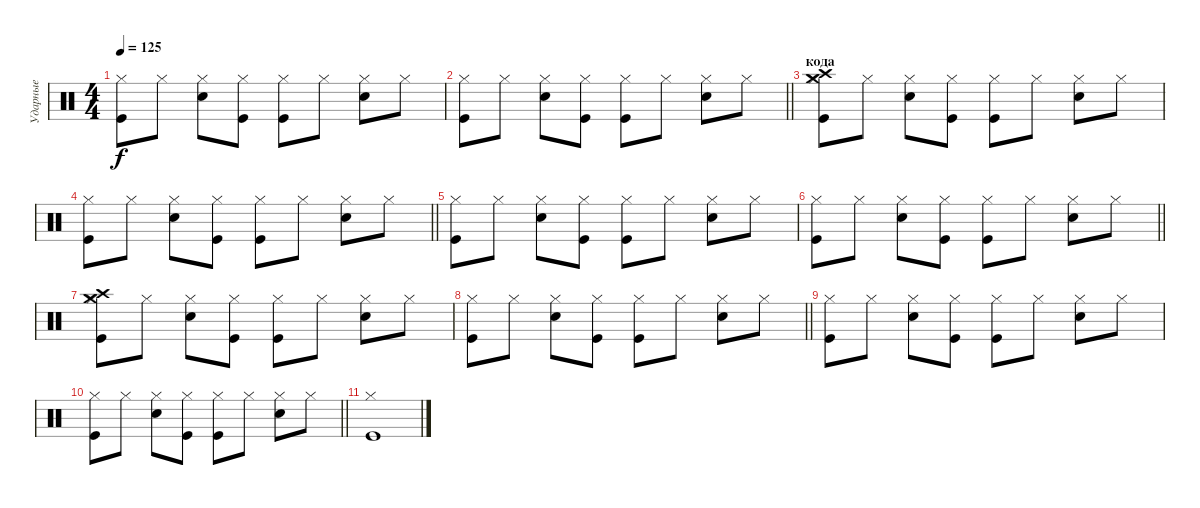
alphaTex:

\track ("Ударные" "Ударные") {instrument percussion}
\staff {score}
\articulation defaults
\ts (4 4)
\tempo 125
\clef neutral
\ks c
("Kick (hit)" "Hi-Hat (closed)").8{dy f} "Hi-Hat (closed)".8 ("Snare (hit) 2" "Hi-Hat (closed)").8 ("Kick (hit)" "Hi-Hat (closed)").8 ("Kick (hit)" "Hi-Hat (closed)").8 "Hi-Hat (closed)".8 ("Snare (hit) 2" "Hi-Hat (closed)").8 "Hi-Hat (closed)".8 |
\barLineRight lightlight
("Kick (hit)" "Hi-Hat (closed)").8 "Hi-Hat (closed)".8 ("Snare (hit) 2" "Hi-Hat (closed)").8 ("Kick (hit)" "Hi-Hat (closed)").8 ("Kick (hit)" "Hi-Hat (closed)").8 "Hi-Hat (closed)".8 ("Snare (hit) 2" "Hi-Hat (closed)").8 "Hi-Hat (closed)".8 |
\section ("" "кода")
("Kick (hit)" "Crash high (hit)" "Crash medium (hit)" "Hi-Hat (closed)").8 "Hi-Hat (closed)".8 ("Snare (hit) 2" "Hi-Hat (closed)").8 ("Kick (hit)" "Hi-Hat (closed)").8 ("Kick (hit)" "Hi-Hat (closed)").8 "Hi-Hat (closed)".8 ("Snare (hit) 2" "Hi-Hat (closed)").8 "Hi-Hat (closed)".8 |
\barLineRight lightlight
("Kick (hit)" "Hi-Hat (closed)").8 "Hi-Hat (closed)".8 ("Snare (hit) 2" "Hi-Hat (closed)").8 ("Kick (hit)" "Hi-Hat (closed)").8 ("Kick (hit)" "Hi-Hat (closed)").8 "Hi-Hat (closed)".8 ("Snare (hit) 2" "Hi-Hat (closed)").8 "Hi-Hat (closed)".8 |
("Kick (hit)" "Hi-Hat (closed)").8 "Hi-Hat (closed)".8 ("Snare (hit) 2" "Hi-Hat (closed)").8 ("Kick (hit)" "Hi-Hat (closed)").8 ("Kick (hit)" "Hi-Hat (closed)").8 "Hi-Hat (closed)".8 ("Snare (hit) 2" "Hi-Hat (closed)").8 "Hi-Hat (closed)".8 |
\barLineRight lightlight
("Kick (hit)" "Hi-Hat (closed)").8 "Hi-Hat (closed)".8 ("Snare (hit) 2" "Hi-Hat (closed)").8 ("Kick (hit)" "Hi-Hat (closed)").8 ("Kick (hit)" "Hi-Hat (closed)").8 "Hi-Hat (closed)".8 ("Snare (hit) 2" "Hi-Hat (closed)").8 "Hi-Hat (closed)".8 |
("Kick (hit)" "Crash high (hit)" "Crash medium (hit)" "Hi-Hat (closed)").8 "Hi-Hat (closed)".8 ("Snare (hit) 2" "Hi-Hat (closed)").8 ("Kick (hit)" "Hi-Hat (closed)").8 ("Kick (hit)" "Hi-Hat (closed)").8 "Hi-Hat (closed)".8 ("Snare (hit) 2" "Hi-Hat (closed)").8 "Hi-Hat (closed)".8 |
\barLineRight lightlight
("Kick (hit)" "Hi-Hat (closed)").8 "Hi-Hat (closed)".8 ("Snare (hit) 2" "Hi-Hat (closed)").8 ("Kick (hit)" "Hi-Hat (closed)").8 ("Kick (hit)" "Hi-Hat (closed)").8 "Hi-Hat (closed)".8 ("Snare (hit) 2" "Hi-Hat (closed)").8 "Hi-Hat (closed)".8 |
("Kick (hit)" "Hi-Hat (closed)").8 "Hi-Hat (closed)".8 ("Snare (hit) 2" "Hi-Hat (closed)").8 ("Kick (hit)" "Hi-Hat (closed)").8 ("Kick (hit)" "Hi-Hat (closed)").8 "Hi-Hat (closed)".8 ("Snare (hit) 2" "Hi-Hat (closed)").8 "Hi-Hat (closed)".8 |
\barLineRight lightlight
("Kick (hit)" "Hi-Hat (closed)").8 "Hi-Hat (closed)".8 ("Snare (hit) 2" "Hi-Hat (closed)").8 ("Kick (hit)" "Hi-Hat (closed)").8 ("Kick (hit)" "Hi-Hat (closed)").8 "Hi-Hat (closed)".8 ("Snare (hit) 2" "Hi-Hat (closed)").8 "Hi-Hat (closed)".8 |
("Hi-Hat (closed)" "Kick (hit)").1
